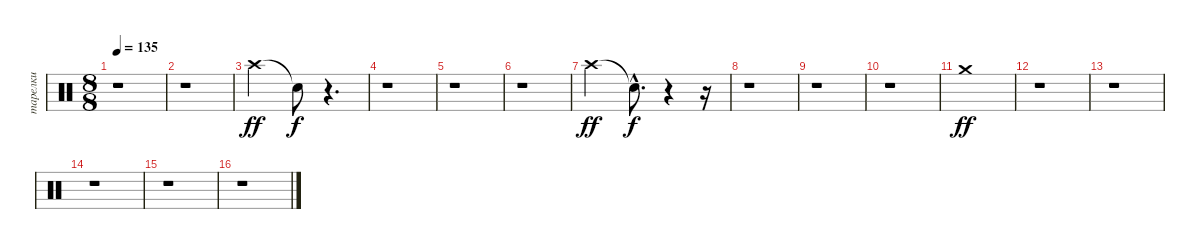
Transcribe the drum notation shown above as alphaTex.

\track ("тарелки" "тарелки") {instrument percussion}
\staff {score}
\articulation defaults
\ts (8 8)
\tempo 135
\clef neutral
\ks c
r.1{dy ff} |
r.1 |
"Crash high (hit)".2 "Snare (hit)"{t}.8{dy f} r.4{d} |
r.1 |
r.1 |
r.1 |
"Crash high (hit)".2{dy ff} "Snare (hit)"{hac t}.8{d dy f} r.4 r.16 |
r.1 |
r.1 |
r.1 |
"Crash medium (hit)".1{dy ff} |
r.1 |
r.1 |
r.1 |
r.1 |
r.1
